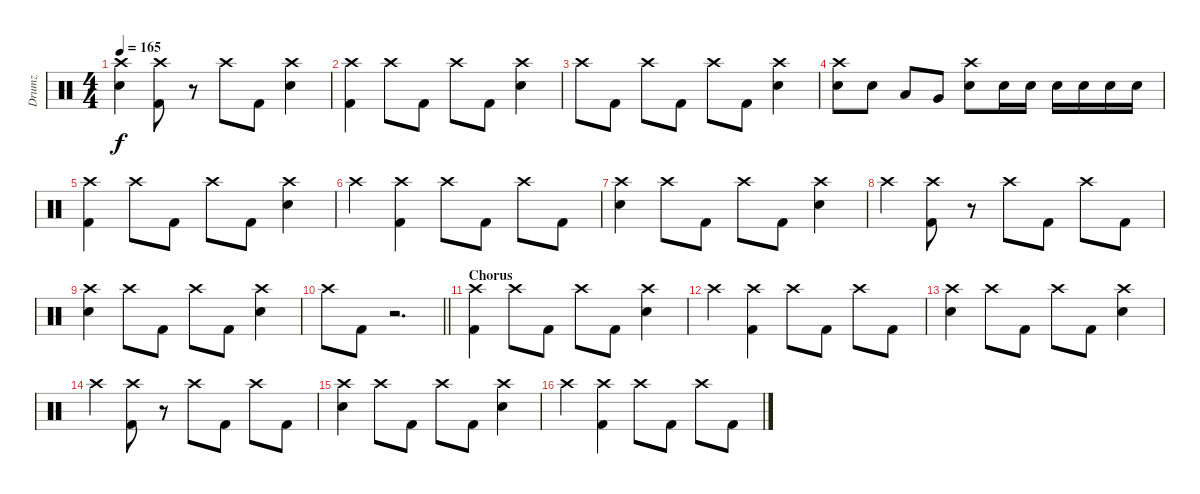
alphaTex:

\track ("Drumz" "Drumz") {instrument percussion}
\staff {score}
\articulation defaults
\ts (4 4)
\tempo 165
\clef neutral
\ks c
("Crash high (hit)" "Snare (hit) 2").4{dy f} ("Crash high (hit)" "Kick (hit) 2").8 r.8 "Crash high (hit)".8 "Kick (hit) 2".8 ("Crash high (hit)" "Snare (hit) 2").4 |
("Kick (hit) 2" "Crash high (hit)").4 "Crash high (hit)".8 "Kick (hit) 2".8 "Crash high (hit)".8 "Kick (hit) 2".8 ("Snare (hit) 2" "Crash high (hit)").4 |
"Crash high (hit)".8 "Kick (hit) 2".8 "Crash high (hit)".8 "Kick (hit) 2".8 "Crash high (hit)".8 "Kick (hit) 2".8 ("Snare (hit) 2" "Crash high (hit)").4 |
("Snare (hit) 2" "Crash high (hit)").8 "Snare (hit) 2".8 "Low Tom (hit)".8 "Very Low Tom (hit)".8 ("Crash high (hit)" "Snare (hit) 2").8 "Snare (hit) 2".16 "Snare (hit) 2".16 "Snare (hit) 2".16 "Snare (hit) 2".16 "Snare (hit) 2".16 "Snare (hit) 2".16 |
("Kick (hit) 2" "Crash high (hit)").4 "Crash high (hit)".8 "Kick (hit) 2".8 "Crash high (hit)".8 "Kick (hit) 2".8 ("Snare (hit) 2" "Crash high (hit)").4 |
"Crash high (hit)".4 ("Kick (hit) 2" "Crash high (hit)").4 "Crash high (hit)".8 "Kick (hit) 2".8 "Crash high (hit)".8 "Kick (hit) 2".8 |
("Snare (hit) 2" "Crash high (hit)").4 "Crash high (hit)".8 "Kick (hit) 2".8 "Crash high (hit)".8 "Kick (hit) 2".8 ("Snare (hit) 2" "Crash high (hit)").4 |
"Crash high (hit)".4 ("Crash high (hit)" "Kick (hit) 2").8 r.8 "Crash high (hit)".8 "Kick (hit) 2".8 "Crash high (hit)".8 "Kick (hit) 2".8 |
("Crash high (hit)" "Snare (hit) 2").4 "Crash high (hit)".8 "Kick (hit) 2".8 "Crash high (hit)".8 "Kick (hit) 2".8 ("Crash high (hit)" "Snare (hit) 2").4 |
\barLineRight lightlight "Crash high (hit)".8 "Kick (hit) 2".8
r.2{d} |
\section ("" "Chorus")
("Kick (hit) 2" "Crash high (hit)").4 "Crash high (hit)".8 "Kick (hit) 2".8 "Crash high (hit)".8 "Kick (hit) 2".8 ("Snare (hit) 2" "Crash high (hit)").4 |
"Crash high (hit)".4 ("Kick (hit) 2" "Crash high (hit)").4 "Crash high (hit)".8 "Kick (hit) 2".8 "Crash high (hit)".8 "Kick (hit) 2".8 |
("Snare (hit) 2" "Crash high (hit)").4 "Crash high (hit)".8 "Kick (hit) 2".8 "Crash high (hit)".8 "Kick (hit) 2".8 ("Snare (hit) 2" "Crash high (hit)").4 |
"Crash high (hit)".4 ("Crash high (hit)" "Kick (hit) 2").8 r.8 "Crash high (hit)".8 "Kick (hit) 2".8 "Crash high (hit)".8 "Kick (hit) 2".8 |
("Crash high (hit)" "Snare (hit) 2").4 "Crash high (hit)".8 "Kick (hit) 2".8 "Crash high (hit)".8 "Kick (hit) 2".8 ("Snare (hit) 2" "Crash high (hit)").4 |
"Crash high (hit)".4 ("Crash high (hit)" "Kick (hit) 2").4 "Crash high (hit)".8 "Kick (hit) 2".8 "Crash high (hit)".8 "Kick (hit) 2".8
